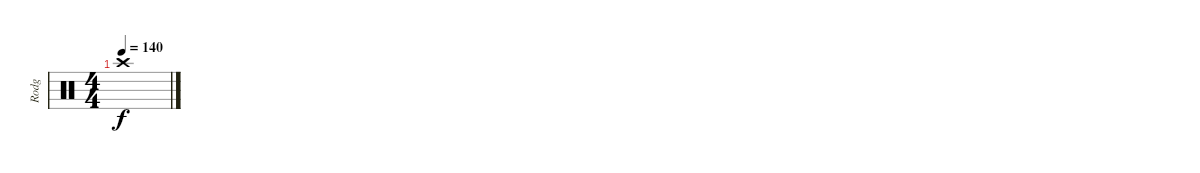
\track ("Rodg" "Rodg") {instrument percussion}
\staff {score}
\articulation defaults
\ts (4 4)
\tempo 140
\clef neutral
\ks c "Crash high (hit)".1{dy f}
